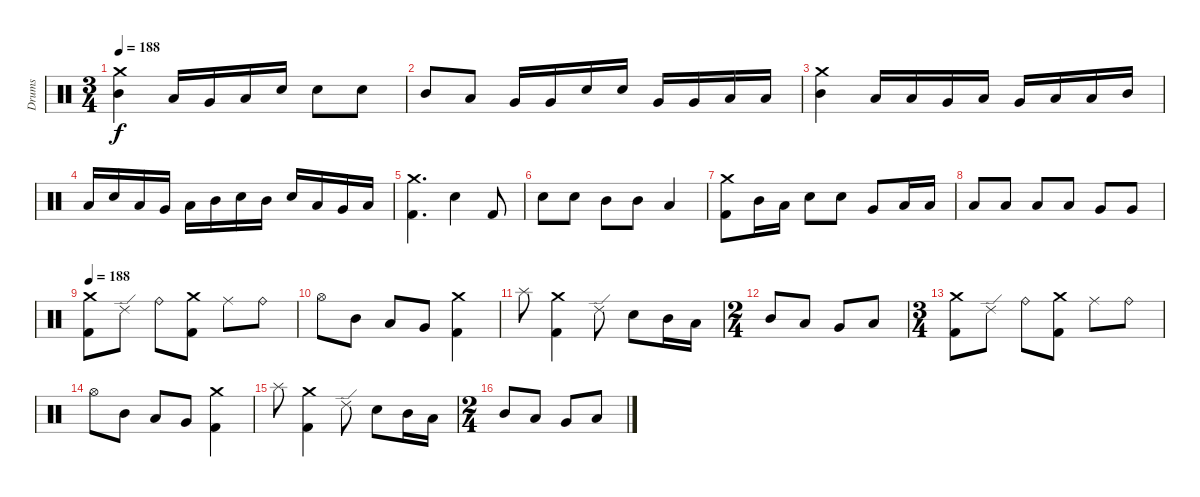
\track ("Drums" "Drums") {instrument percussion}
\staff {score}
\articulation defaults
\ts (3 4)
\tempo 188
\clef neutral
\ks c
("Crash medium (hit)" "Mid Tom (hit)").4{dy f} "Low Tom (hit)".16 "Very Low Tom (hit)".16 "Low Floor Tom (hit)".16 "Snare (hit) 2".16 "Electric Snare (hit)".8 "Electric Snare (hit)".8 |
"Mid Tom (hit)".8 "Low Tom (hit)".8 "Very Low Tom (hit)".16 "Very Low Tom (hit)".16 "Electric Snare (hit)".16 "Electric Snare (hit)".16 "Very Low Tom (hit)".16 "Very Low Tom (hit)".16 "Low Floor Tom (hit)".16 "Low Floor Tom (hit)".16 |
("Crash medium (hit)" "Mid Tom (hit)").4 "Low Floor Tom (hit)".16 "Low Floor Tom (hit)".16 "Very Low Tom (hit)".16 "Low Tom (hit)".16 "Very Low Tom (hit)".16 "Low Floor Tom (hit)".16 "Low Floor Tom (hit)".16 "Mid Tom (hit)".16 |
"Low Tom (hit)".16 "Electric Snare (hit)".16 "Low Tom (hit)".16 "Very Low Tom (hit)".16 "Low Floor Tom (hit)".16 "Mid Tom (hit)".16 "Electric Snare (hit)".16 "Mid Tom (hit)".16 "Electric Snare (hit)".16 "Low Floor Tom (hit)".16 "Very Low Tom (hit)".16 "Low Tom (hit)".16 |
("Crash medium (hit)" "Kick (hit) 2").4{d} "Electric Snare (hit)".4 "Kick (hit) 2".8 |
"Electric Snare (hit)".8 "Electric Snare (hit)".8 "Mid Tom (hit)".8 "Mid Tom (hit)".8 "Low Tom (hit)".4 |
("Crash medium (hit)" "Kick (hit) 2").8 "Mid Tom (hit)".16 "Low Tom (hit)".16 "Electric Snare (hit)".8 "Electric Snare (hit)".8 "Very Low Tom (hit)".8 "Low Tom (hit)".16 "Low Floor Tom (hit)".16 |
"Low Floor Tom (hit)".8 "Low Floor Tom (hit)".8 "Low Tom (hit)".8 "Low Tom (hit)".8 "Very Low Tom (hit)".8 "Very Low Tom (hit)".8 |
\tempo 188
("Crash medium (hit)" "Kick (hit) 2").8 "Ride (edge) 2".8 "Ride (bell)".8 ("Crash medium (hit)" "Kick (hit) 2").8 "Ride (middle)".8 "Ride (bell)".8 |
"Hi-Hat (open)".8 "Mid Tom (hit)".8 "Low Tom (hit)".8 "Very Low Tom (hit)".8 ("Crash medium (hit)" "Kick (hit) 2").4 |
"Splash (hit)".8 ("Crash medium (hit)" "Kick (hit) 2").4 "Ride (edge) 2".8 "Electric Snare (hit)".8 "Mid Tom (hit)".16 "Low Tom (hit)".16 |
\ts (2 4)
"Mid Tom (hit)".8 "Low Tom (hit)".8 "Very Low Tom (hit)".8 "Low Floor Tom (hit)".8 |
\ts (3 4)
("Crash medium (hit)" "Kick (hit) 2").8 "Ride (edge) 2".8 "Ride (bell)".8 ("Crash medium (hit)" "Kick (hit) 2").8 "Ride (middle)".8 "Ride (bell)".8 |
"Hi-Hat (open)".8 "Mid Tom (hit)".8 "Low Tom (hit)".8 "Very Low Tom (hit)".8 ("Crash medium (hit)" "Kick (hit) 2").4 |
"Splash (hit)".8 ("Crash medium (hit)" "Kick (hit) 2").4 "Ride (edge) 2".8 "Electric Snare (hit)".8 "Mid Tom (hit)".16 "Low Tom (hit)".16 |
\ts (2 4)
"Mid Tom (hit)".8 "Low Tom (hit)".8 "Very Low Tom (hit)".8 "Low Floor Tom (hit)".8
